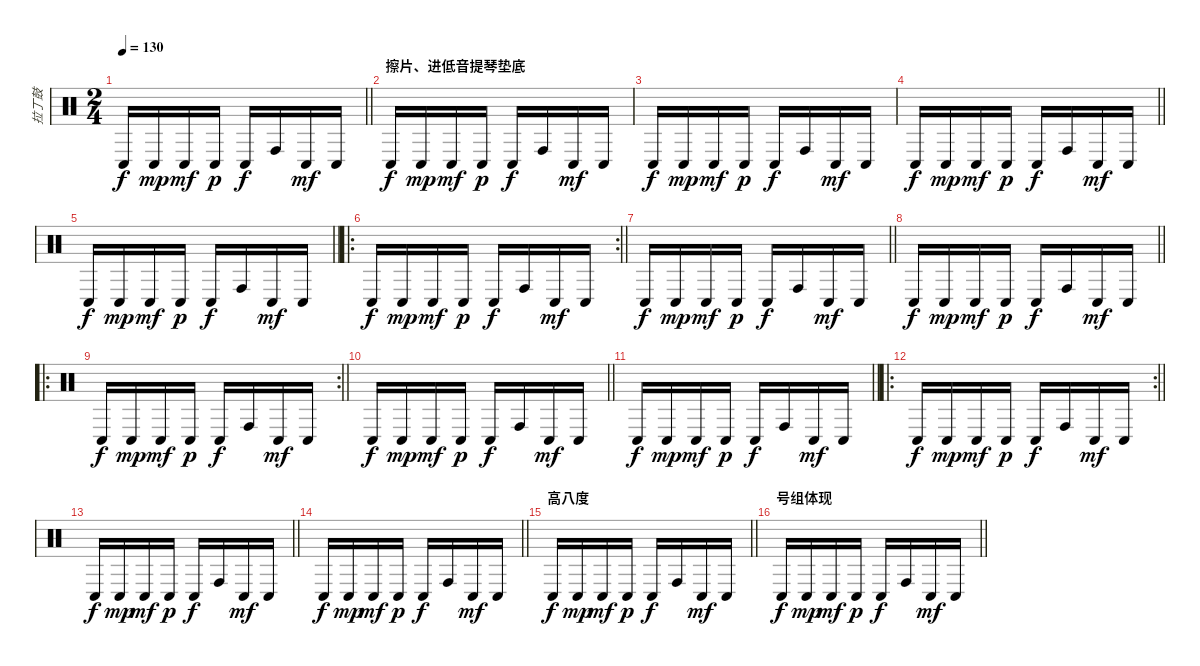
\track ("拉丁鼓" "拉丁鼓") {instrument percussion}
\staff {score}
\articulation defaults
\ts (2 4)
\tempo 130
\clef neutral
\barLineRight lightlight
\ks c "Conga low (hit)".16{dy f} "Conga low (hit)".16{dy mp} "Conga low (hit)".16{dy mf} "Conga low (hit)".16{dy p} "Conga low (hit)".16{dy f} "Conga high (hit)".16 "Conga low (hit)".16{dy mf} "Conga low (hit)".16
|
\section ("" "擦片、进低音提琴垫底")
"Conga low (hit)".16{dy f} "Conga low (hit)".16{dy mp} "Conga low (hit)".16{dy mf} "Conga low (hit)".16{dy p} "Conga low (hit)".16{dy f} "Conga high (hit)".16 "Conga low (hit)".16{dy mf} "Conga low (hit)".16 |
"Conga low (hit)".16{dy f} "Conga low (hit)".16{dy mp} "Conga low (hit)".16{dy mf} "Conga low (hit)".16{dy p} "Conga low (hit)".16{dy f} "Conga high (hit)".16 "Conga low (hit)".16{dy mf} "Conga low (hit)".16 |
\barLineRight lightlight "Conga low (hit)".16{dy f} "Conga low (hit)".16{dy mp} "Conga low (hit)".16{dy mf} "Conga low (hit)".16{dy p} "Conga low (hit)".16{dy f} "Conga high (hit)".16 "Conga low (hit)".16{dy mf} "Conga low (hit)".16
|
\barLineRight lightlight "Conga low (hit)".16{dy f} "Conga low (hit)".16{dy mp} "Conga low (hit)".16{dy mf} "Conga low (hit)".16{dy p} "Conga low (hit)".16{dy f} "Conga high (hit)".16 "Conga low (hit)".16{dy mf} "Conga low (hit)".16
|
\ro
\rc 2
\barLineRight lightlight "Conga low (hit)".16{dy f} "Conga low (hit)".16{dy mp} "Conga low (hit)".16{dy mf} "Conga low (hit)".16{dy p} "Conga low (hit)".16{dy f} "Conga high (hit)".16 "Conga low (hit)".16{dy mf} "Conga low (hit)".16
|
\barLineRight lightlight "Conga low (hit)".16{dy f} "Conga low (hit)".16{dy mp} "Conga low (hit)".16{dy mf} "Conga low (hit)".16{dy p} "Conga low (hit)".16{dy f} "Conga high (hit)".16 "Conga low (hit)".16{dy mf} "Conga low (hit)".16
|
\barLineRight lightlight "Conga low (hit)".16{dy f} "Conga low (hit)".16{dy mp} "Conga low (hit)".16{dy mf} "Conga low (hit)".16{dy p} "Conga low (hit)".16{dy f} "Conga high (hit)".16 "Conga low (hit)".16{dy mf} "Conga low (hit)".16
|
\ro
\rc 2
\barLineRight lightlight "Conga low (hit)".16{dy f} "Conga low (hit)".16{dy mp} "Conga low (hit)".16{dy mf} "Conga low (hit)".16{dy p} "Conga low (hit)".16{dy f} "Conga high (hit)".16 "Conga low (hit)".16{dy mf} "Conga low (hit)".16
|
\barLineRight lightlight "Conga low (hit)".16{dy f} "Conga low (hit)".16{dy mp} "Conga low (hit)".16{dy mf} "Conga low (hit)".16{dy p} "Conga low (hit)".16{dy f} "Conga high (hit)".16 "Conga low (hit)".16{dy mf} "Conga low (hit)".16
|
\barLineRight lightlight "Conga low (hit)".16{dy f} "Conga low (hit)".16{dy mp} "Conga low (hit)".16{dy mf} "Conga low (hit)".16{dy p} "Conga low (hit)".16{dy f} "Conga high (hit)".16 "Conga low (hit)".16{dy mf} "Conga low (hit)".16
|
\ro
\rc 2
\barLineRight lightlight "Conga low (hit)".16{dy f} "Conga low (hit)".16{dy mp} "Conga low (hit)".16{dy mf} "Conga low (hit)".16{dy p} "Conga low (hit)".16{dy f} "Conga high (hit)".16 "Conga low (hit)".16{dy mf} "Conga low (hit)".16
|
\barLineRight lightlight "Conga low (hit)".16{dy f} "Conga low (hit)".16{dy mp} "Conga low (hit)".16{dy mf} "Conga low (hit)".16{dy p} "Conga low (hit)".16{dy f} "Conga high (hit)".16 "Conga low (hit)".16{dy mf} "Conga low (hit)".16
|
\barLineRight lightlight "Conga low (hit)".16{dy f} "Conga low (hit)".16{dy mp} "Conga low (hit)".16{dy mf} "Conga low (hit)".16{dy p} "Conga low (hit)".16{dy f} "Conga high (hit)".16 "Conga low (hit)".16{dy mf} "Conga low (hit)".16
|
\section ("" "高八度")
\barLineRight lightlight "Conga low (hit)".16{dy f} "Conga low (hit)".16{dy mp} "Conga low (hit)".16{dy mf} "Conga low (hit)".16{dy p} "Conga low (hit)".16{dy f} "Conga high (hit)".16 "Conga low (hit)".16{dy mf} "Conga low (hit)".16
|
\section ("" "号组体现")
\barLineRight lightlight "Conga low (hit)".16{dy f} "Conga low (hit)".16{dy mp} "Conga low (hit)".16{dy mf} "Conga low (hit)".16{dy p} "Conga low (hit)".16{dy f} "Conga high (hit)".16 "Conga low (hit)".16{dy mf} "Conga low (hit)".16
